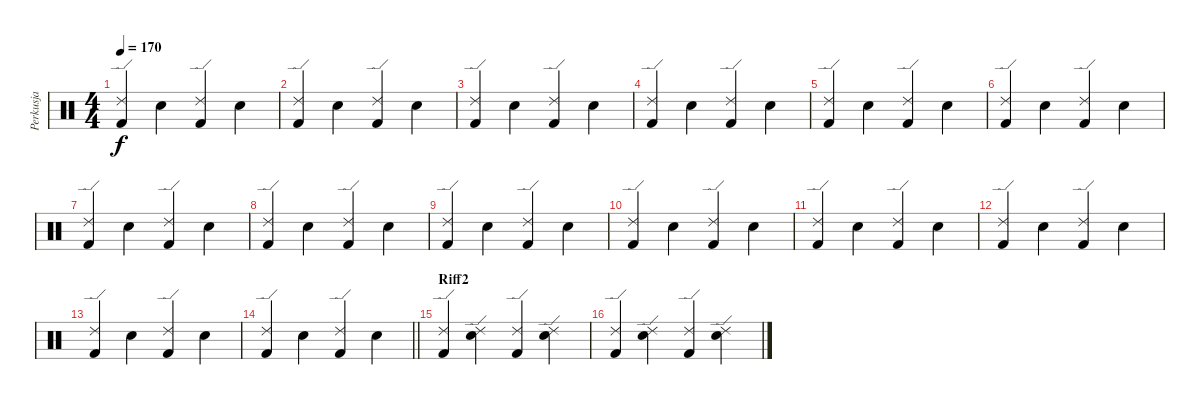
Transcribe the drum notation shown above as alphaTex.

\track ("Perkusja" "Perkusja") {instrument percussion}
\staff {score}
\articulation defaults
\ts (4 4)
\tempo 170
\clef neutral
\ks c
("Ride (edge) 2" "Kick (hit) 2").4{dy f} "Electric Snare (hit)".4 ("Ride (edge) 2" "Kick (hit) 2").4 "Electric Snare (hit)".4 |
("Ride (edge) 2" "Kick (hit) 2").4 "Electric Snare (hit)".4 ("Ride (edge) 2" "Kick (hit) 2").4 "Electric Snare (hit)".4 |
("Ride (edge) 2" "Kick (hit) 2").4 "Electric Snare (hit)".4 ("Ride (edge) 2" "Kick (hit) 2").4 "Electric Snare (hit)".4 |
("Ride (edge) 2" "Kick (hit) 2").4 "Electric Snare (hit)".4 ("Ride (edge) 2" "Kick (hit) 2").4 "Electric Snare (hit)".4 |
("Ride (edge) 2" "Kick (hit) 2").4 "Electric Snare (hit)".4 ("Ride (edge) 2" "Kick (hit) 2").4 "Electric Snare (hit)".4 |
("Ride (edge) 2" "Kick (hit) 2").4 "Electric Snare (hit)".4 ("Ride (edge) 2" "Kick (hit) 2").4 "Electric Snare (hit)".4 |
("Ride (edge) 2" "Kick (hit) 2").4 "Electric Snare (hit)".4 ("Ride (edge) 2" "Kick (hit) 2").4 "Electric Snare (hit)".4 |
("Ride (edge) 2" "Kick (hit) 2").4 "Electric Snare (hit)".4 ("Ride (edge) 2" "Kick (hit) 2").4 "Electric Snare (hit)".4 |
("Ride (edge) 2" "Kick (hit) 2").4 "Electric Snare (hit)".4 ("Ride (edge) 2" "Kick (hit) 2").4 "Electric Snare (hit)".4 |
("Ride (edge) 2" "Kick (hit) 2").4 "Electric Snare (hit)".4 ("Ride (edge) 2" "Kick (hit) 2").4 "Electric Snare (hit)".4 |
("Ride (edge) 2" "Kick (hit) 2").4 "Electric Snare (hit)".4 ("Ride (edge) 2" "Kick (hit) 2").4 "Electric Snare (hit)".4 |
("Ride (edge) 2" "Kick (hit) 2").4 "Electric Snare (hit)".4 ("Ride (edge) 2" "Kick (hit) 2").4 "Electric Snare (hit)".4 |
("Ride (edge) 2" "Kick (hit) 2").4 "Electric Snare (hit)".4 ("Ride (edge) 2" "Kick (hit) 2").4 "Electric Snare (hit)".4 |
\barLineRight lightlight
("Ride (edge) 2" "Kick (hit) 2").4 "Electric Snare (hit)".4 ("Ride (edge) 2" "Kick (hit) 2").4 "Electric Snare (hit)".4 |
\section ("" "Riff2")
("Ride (edge) 2" "Kick (hit) 2").4 ("Ride (edge) 2" "Electric Snare (hit)").4 ("Ride (edge) 2" "Kick (hit) 2").4 ("Ride (edge) 2" "Electric Snare (hit)").4 |
("Ride (edge) 2" "Kick (hit) 2").4 ("Ride (edge) 2" "Electric Snare (hit)").4 ("Ride (edge) 2" "Kick (hit) 2").4 ("Ride (edge) 2" "Electric Snare (hit)").4
